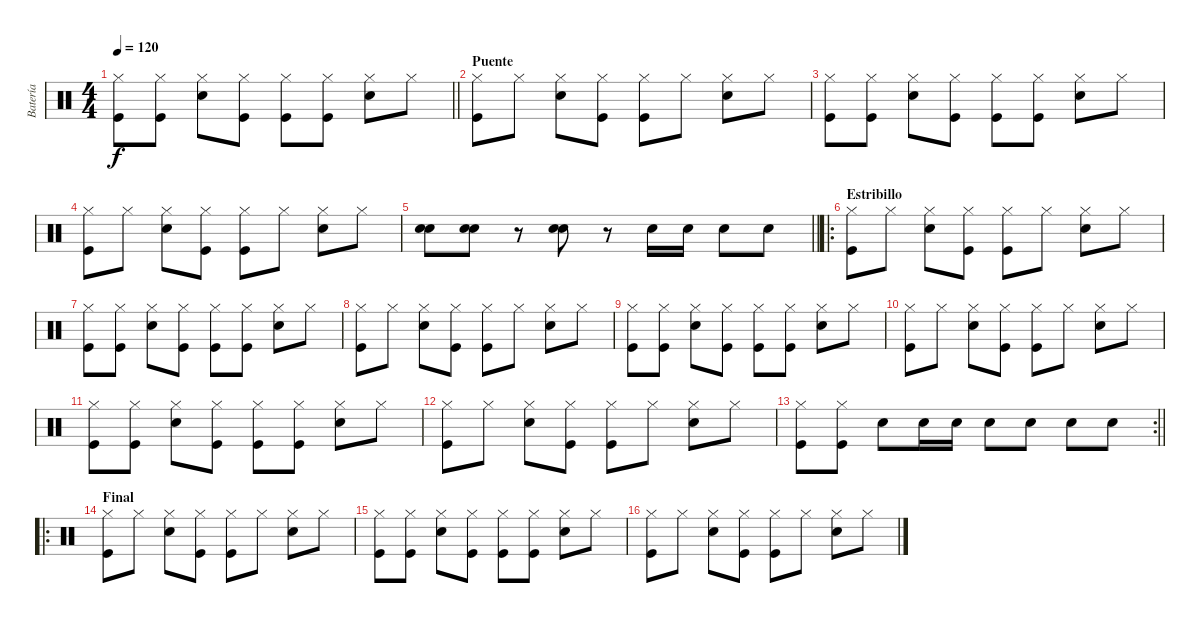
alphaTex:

\track ("Batería" "Batería") {instrument percussion}
\staff {score}
\articulation defaults
\ts (4 4)
\tempo 120
\clef neutral
\barLineRight lightlight
\ks c
("Hi-Hat (closed)" "Kick (hit)").8{dy f} ("Hi-Hat (closed)" "Kick (hit)").8 ("Hi-Hat (closed)" "Snare (hit) 2").8 ("Hi-Hat (closed)" "Kick (hit)").8 ("Hi-Hat (closed)" "Kick (hit)").8 ("Hi-Hat (closed)" "Kick (hit)").8 ("Hi-Hat (closed)" "Snare (hit) 2").8 "Hi-Hat (closed)".8 |
\section ("" "Puente")
("Hi-Hat (closed)" "Kick (hit)").8 "Hi-Hat (closed)".8 ("Hi-Hat (closed)" "Snare (hit) 2").8 ("Hi-Hat (closed)" "Kick (hit)").8 ("Hi-Hat (closed)" "Kick (hit)").8 "Hi-Hat (closed)".8 ("Hi-Hat (closed)" "Snare (hit) 2").8 "Hi-Hat (closed)".8 |
("Hi-Hat (closed)" "Kick (hit)").8 ("Hi-Hat (closed)" "Kick (hit)").8 ("Hi-Hat (closed)" "Snare (hit) 2").8 ("Hi-Hat (closed)" "Kick (hit)").8 ("Hi-Hat (closed)" "Kick (hit)").8 ("Hi-Hat (closed)" "Kick (hit)").8 ("Hi-Hat (closed)" "Snare (hit) 2").8 "Hi-Hat (closed)".8 |
("Hi-Hat (closed)" "Kick (hit)").8 "Hi-Hat (closed)".8 ("Hi-Hat (closed)" "Snare (hit) 2").8 ("Hi-Hat (closed)" "Kick (hit)").8 ("Hi-Hat (closed)" "Kick (hit)").8 "Hi-Hat (closed)".8 ("Hi-Hat (closed)" "Snare (hit) 2").8 "Hi-Hat (closed)".8 |
\barLineRight lightlight
("Snare (hit) 2" "Electric Snare (hit)").8 ("Snare (hit) 2" "Electric Snare (hit)").8 r.8 ("Snare (hit) 2" "Electric Snare (hit)").8 r.8 "Electric Snare (hit)".16 "Electric Snare (hit)".16 "Electric Snare (hit)".8 "Electric Snare (hit)".8 |
\ro
\section ("" "Estribillo")
("Hi-Hat (closed)" "Kick (hit)").8 "Hi-Hat (closed)".8 ("Hi-Hat (closed)" "Snare (hit) 2").8 ("Hi-Hat (closed)" "Kick (hit)").8 ("Hi-Hat (closed)" "Kick (hit)").8 "Hi-Hat (closed)".8 ("Hi-Hat (closed)" "Snare (hit) 2").8 "Hi-Hat (closed)".8 |
("Hi-Hat (closed)" "Kick (hit)").8 ("Hi-Hat (closed)" "Kick (hit)").8 ("Hi-Hat (closed)" "Snare (hit) 2").8 ("Hi-Hat (closed)" "Kick (hit)").8 ("Hi-Hat (closed)" "Kick (hit)").8 ("Hi-Hat (closed)" "Kick (hit)").8 ("Hi-Hat (closed)" "Snare (hit) 2").8 "Hi-Hat (closed)".8 |
("Hi-Hat (closed)" "Kick (hit)").8 "Hi-Hat (closed)".8 ("Hi-Hat (closed)" "Snare (hit) 2").8 ("Hi-Hat (closed)" "Kick (hit)").8 ("Hi-Hat (closed)" "Kick (hit)").8 "Hi-Hat (closed)".8 ("Hi-Hat (closed)" "Snare (hit) 2").8 "Hi-Hat (closed)".8 |
("Hi-Hat (closed)" "Kick (hit)").8 ("Hi-Hat (closed)" "Kick (hit)").8 ("Hi-Hat (closed)" "Snare (hit) 2").8 ("Hi-Hat (closed)" "Kick (hit)").8 ("Hi-Hat (closed)" "Kick (hit)").8 ("Hi-Hat (closed)" "Kick (hit)").8 ("Hi-Hat (closed)" "Snare (hit) 2").8 "Hi-Hat (closed)".8 |
("Hi-Hat (closed)" "Kick (hit)").8 "Hi-Hat (closed)".8 ("Hi-Hat (closed)" "Snare (hit) 2").8 ("Hi-Hat (closed)" "Kick (hit)").8 ("Hi-Hat (closed)" "Kick (hit)").8 "Hi-Hat (closed)".8 ("Hi-Hat (closed)" "Snare (hit) 2").8 "Hi-Hat (closed)".8 |
("Hi-Hat (closed)" "Kick (hit)").8 ("Hi-Hat (closed)" "Kick (hit)").8 ("Hi-Hat (closed)" "Snare (hit) 2").8 ("Hi-Hat (closed)" "Kick (hit)").8 ("Hi-Hat (closed)" "Kick (hit)").8 ("Hi-Hat (closed)" "Kick (hit)").8 ("Hi-Hat (closed)" "Snare (hit) 2").8 "Hi-Hat (closed)".8 |
("Hi-Hat (closed)" "Kick (hit)").8 "Hi-Hat (closed)".8 ("Hi-Hat (closed)" "Snare (hit) 2").8 ("Hi-Hat (closed)" "Kick (hit)").8 ("Hi-Hat (closed)" "Kick (hit)").8 "Hi-Hat (closed)".8 ("Hi-Hat (closed)" "Snare (hit) 2").8 "Hi-Hat (closed)".8 |
\rc 2
\barLineRight lightlight
("Hi-Hat (closed)" "Kick (hit)").8 ("Hi-Hat (closed)" "Kick (hit)").8 "Electric Snare (hit)".8 "Electric Snare (hit)".16 "Electric Snare (hit)".16 "Electric Snare (hit)".8 "Electric Snare (hit)".8 "Electric Snare (hit)".8 "Electric Snare (hit)".8 |
\ro
\section ("" "Final")
("Hi-Hat (closed)" "Kick (hit)").8 "Hi-Hat (closed)".8 ("Hi-Hat (closed)" "Snare (hit) 2").8 ("Hi-Hat (closed)" "Kick (hit)").8 ("Hi-Hat (closed)" "Kick (hit)").8 "Hi-Hat (closed)".8 ("Hi-Hat (closed)" "Snare (hit) 2").8 "Hi-Hat (closed)".8 |
("Hi-Hat (closed)" "Kick (hit)").8 ("Hi-Hat (closed)" "Kick (hit)").8 ("Hi-Hat (closed)" "Snare (hit) 2").8 ("Hi-Hat (closed)" "Kick (hit)").8 ("Hi-Hat (closed)" "Kick (hit)").8 ("Hi-Hat (closed)" "Kick (hit)").8 ("Hi-Hat (closed)" "Snare (hit) 2").8 "Hi-Hat (closed)".8 |
("Hi-Hat (closed)" "Kick (hit)").8 "Hi-Hat (closed)".8 ("Hi-Hat (closed)" "Snare (hit) 2").8 ("Hi-Hat (closed)" "Kick (hit)").8 ("Hi-Hat (closed)" "Kick (hit)").8 "Hi-Hat (closed)".8 ("Hi-Hat (closed)" "Snare (hit) 2").8 "Hi-Hat (closed)".8
